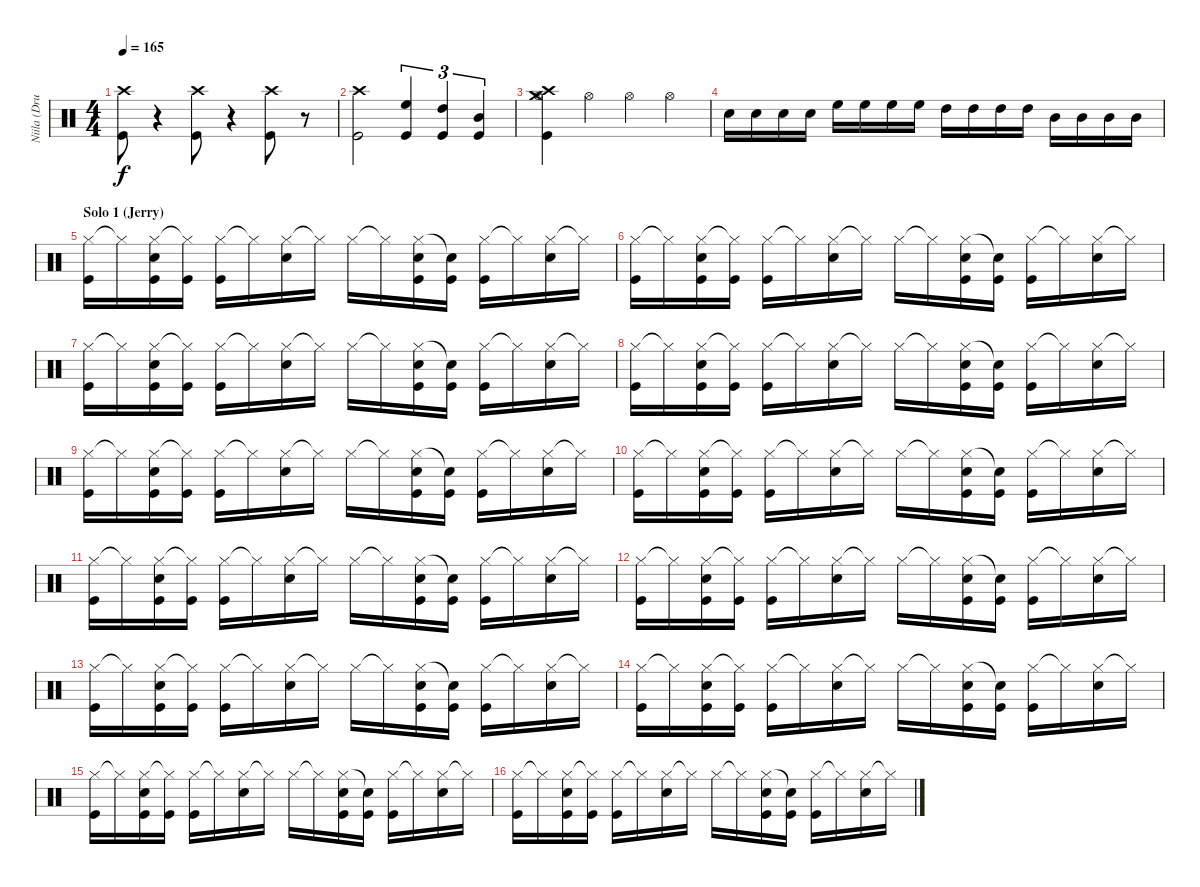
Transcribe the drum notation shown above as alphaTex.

\track ("Niila (Drums)" "Niila (Dru") {instrument percussion}
\staff {score}
\articulation defaults
\ts (4 4)
\tempo 165
\clef neutral
\ks c
("Crash high (hit)" "Kick (hit)").8{dy f} r.4 ("Crash high (hit)" "Kick (hit)").8 r.4 ("Crash high (hit)" "Kick (hit)").8 r.8 |
("Crash high (hit)" "Kick (hit)").2 ("High Floor Tom (hit)" "Kick (hit)").4{tu (3 2)} ("High Tom (hit)" "Kick (hit)").4{tu (3 2)} ("Mid Tom (hit)" "Kick (hit)").4{tu (3 2)} |
("Crash medium (hit)" "Crash high (hit)" "Hi-Hat (open)" "Kick (hit)").4 "Hi-Hat (open)".4 "Hi-Hat (open)".4 "Hi-Hat (open)".4 |
"Snare (hit) 2".16 "Snare (hit) 2".16 "Snare (hit) 2".16 "Snare (hit) 2".16 "High Floor Tom (hit)".16 "High Floor Tom (hit)".16 "High Floor Tom (hit)".16 "High Floor Tom (hit)".16 "High Tom (hit)".16 "High Tom (hit)".16 "High Tom (hit)".16 "High Tom (hit)".16 "Mid Tom (hit)".16 "Mid Tom (hit)".16 "Mid Tom (hit)".16 "Mid Tom (hit)".16 |
\section ("" "Solo 1 (Jerry)")
("Hi-Hat (closed)" "Kick (hit)").16 "Hi-Hat (closed)"{t}.16 ("Hi-Hat (closed)" "Snare (hit) 2" "Kick (hit)").16 ("Hi-Hat (closed)"{t} "Kick (hit)").16 ("Hi-Hat (closed)" "Kick (hit)").16 "Hi-Hat (closed)"{t}.16 ("Hi-Hat (closed)" "Snare (hit) 2").16 "Hi-Hat (closed)"{t}.16 "Hi-Hat (closed)".16 "Hi-Hat (closed)"{t}.16 ("Hi-Hat (closed)" "Snare (hit) 2" "Kick (hit)").16 ("Snare (hit)"{t} "Kick (hit)").16 ("Hi-Hat (closed)" "Kick (hit)").16 "Hi-Hat (closed)"{t}.16 ("Hi-Hat (closed)" "Snare (hit) 2").16 "Hi-Hat (closed)"{t}.16 |
("Hi-Hat (closed)" "Kick (hit)").16 "Hi-Hat (closed)"{t}.16 ("Hi-Hat (closed)" "Snare (hit) 2" "Kick (hit)").16 ("Hi-Hat (closed)"{t} "Kick (hit)").16 ("Hi-Hat (closed)" "Kick (hit)").16 "Hi-Hat (closed)"{t}.16 ("Hi-Hat (closed)" "Snare (hit) 2").16 "Hi-Hat (closed)"{t}.16 "Hi-Hat (closed)".16 "Hi-Hat (closed)"{t}.16 ("Hi-Hat (closed)" "Snare (hit) 2" "Kick (hit)").16 ("Snare (hit)"{t} "Kick (hit)").16 ("Hi-Hat (closed)" "Kick (hit)").16 "Hi-Hat (closed)"{t}.16 ("Hi-Hat (closed)" "Snare (hit) 2").16 "Hi-Hat (closed)"{t}.16 |
("Hi-Hat (closed)" "Kick (hit)").16 "Hi-Hat (closed)"{t}.16 ("Hi-Hat (closed)" "Snare (hit) 2" "Kick (hit)").16 ("Hi-Hat (closed)"{t} "Kick (hit)").16 ("Hi-Hat (closed)" "Kick (hit)").16 "Hi-Hat (closed)"{t}.16 ("Hi-Hat (closed)" "Snare (hit) 2").16 "Hi-Hat (closed)"{t}.16 "Hi-Hat (closed)".16 "Hi-Hat (closed)"{t}.16 ("Hi-Hat (closed)" "Snare (hit) 2" "Kick (hit)").16 ("Snare (hit)"{t} "Kick (hit)").16 ("Hi-Hat (closed)" "Kick (hit)").16 "Hi-Hat (closed)"{t}.16 ("Hi-Hat (closed)" "Snare (hit) 2").16 "Hi-Hat (closed)"{t}.16 |
("Hi-Hat (closed)" "Kick (hit)").16 "Hi-Hat (closed)"{t}.16 ("Hi-Hat (closed)" "Snare (hit) 2" "Kick (hit)").16 ("Hi-Hat (closed)"{t} "Kick (hit)").16 ("Hi-Hat (closed)" "Kick (hit)").16 "Hi-Hat (closed)"{t}.16 ("Hi-Hat (closed)" "Snare (hit) 2").16 "Hi-Hat (closed)"{t}.16 "Hi-Hat (closed)".16 "Hi-Hat (closed)"{t}.16 ("Hi-Hat (closed)" "Snare (hit) 2" "Kick (hit)").16 ("Snare (hit)"{t} "Kick (hit)").16 ("Hi-Hat (closed)" "Kick (hit)").16 "Hi-Hat (closed)"{t}.16 ("Hi-Hat (closed)" "Snare (hit) 2").16 "Hi-Hat (closed)"{t}.16 |
("Hi-Hat (closed)" "Kick (hit)").16 "Hi-Hat (closed)"{t}.16 ("Hi-Hat (closed)" "Snare (hit) 2" "Kick (hit)").16 ("Hi-Hat (closed)"{t} "Kick (hit)").16 ("Hi-Hat (closed)" "Kick (hit)").16 "Hi-Hat (closed)"{t}.16 ("Hi-Hat (closed)" "Snare (hit) 2").16 "Hi-Hat (closed)"{t}.16 "Hi-Hat (closed)".16 "Hi-Hat (closed)"{t}.16 ("Hi-Hat (closed)" "Snare (hit) 2" "Kick (hit)").16 ("Snare (hit)"{t} "Kick (hit)").16 ("Hi-Hat (closed)" "Kick (hit)").16 "Hi-Hat (closed)"{t}.16 ("Hi-Hat (closed)" "Snare (hit) 2").16 "Hi-Hat (closed)"{t}.16 |
("Hi-Hat (closed)" "Kick (hit)").16 "Hi-Hat (closed)"{t}.16 ("Hi-Hat (closed)" "Snare (hit) 2" "Kick (hit)").16 ("Hi-Hat (closed)"{t} "Kick (hit)").16 ("Hi-Hat (closed)" "Kick (hit)").16 "Hi-Hat (closed)"{t}.16 ("Hi-Hat (closed)" "Snare (hit) 2").16 "Hi-Hat (closed)"{t}.16 "Hi-Hat (closed)".16 "Hi-Hat (closed)"{t}.16 ("Hi-Hat (closed)" "Snare (hit) 2" "Kick (hit)").16 ("Snare (hit)"{t} "Kick (hit)").16 ("Hi-Hat (closed)" "Kick (hit)").16 "Hi-Hat (closed)"{t}.16 ("Hi-Hat (closed)" "Snare (hit) 2").16 "Hi-Hat (closed)"{t}.16 |
("Hi-Hat (closed)" "Kick (hit)").16 "Hi-Hat (closed)"{t}.16 ("Hi-Hat (closed)" "Snare (hit) 2" "Kick (hit)").16 ("Hi-Hat (closed)"{t} "Kick (hit)").16 ("Hi-Hat (closed)" "Kick (hit)").16 "Hi-Hat (closed)"{t}.16 ("Hi-Hat (closed)" "Snare (hit) 2").16 "Hi-Hat (closed)"{t}.16 "Hi-Hat (closed)".16 "Hi-Hat (closed)"{t}.16 ("Hi-Hat (closed)" "Snare (hit) 2" "Kick (hit)").16 ("Snare (hit)"{t} "Kick (hit)").16 ("Hi-Hat (closed)" "Kick (hit)").16 "Hi-Hat (closed)"{t}.16 ("Hi-Hat (closed)" "Snare (hit) 2").16 "Hi-Hat (closed)"{t}.16 |
("Hi-Hat (closed)" "Kick (hit)").16 "Hi-Hat (closed)"{t}.16 ("Hi-Hat (closed)" "Snare (hit) 2" "Kick (hit)").16 ("Hi-Hat (closed)"{t} "Kick (hit)").16 ("Hi-Hat (closed)" "Kick (hit)").16 "Hi-Hat (closed)"{t}.16 ("Hi-Hat (closed)" "Snare (hit) 2").16 "Hi-Hat (closed)"{t}.16 "Hi-Hat (closed)".16 "Hi-Hat (closed)"{t}.16 ("Hi-Hat (closed)" "Snare (hit) 2" "Kick (hit)").16 ("Snare (hit)"{t} "Kick (hit)").16 ("Hi-Hat (closed)" "Kick (hit)").16 "Hi-Hat (closed)"{t}.16 ("Hi-Hat (closed)" "Snare (hit) 2").16 "Hi-Hat (closed)"{t}.16 |
("Hi-Hat (closed)" "Kick (hit)").16 "Hi-Hat (closed)"{t}.16 ("Hi-Hat (closed)" "Snare (hit) 2" "Kick (hit)").16 ("Hi-Hat (closed)"{t} "Kick (hit)").16 ("Hi-Hat (closed)" "Kick (hit)").16 "Hi-Hat (closed)"{t}.16 ("Hi-Hat (closed)" "Snare (hit) 2").16 "Hi-Hat (closed)"{t}.16 "Hi-Hat (closed)".16 "Hi-Hat (closed)"{t}.16 ("Hi-Hat (closed)" "Snare (hit) 2" "Kick (hit)").16 ("Snare (hit)"{t} "Kick (hit)").16 ("Hi-Hat (closed)" "Kick (hit)").16 "Hi-Hat (closed)"{t}.16 ("Hi-Hat (closed)" "Snare (hit) 2").16 "Hi-Hat (closed)"{t}.16 |
("Hi-Hat (closed)" "Kick (hit)").16 "Hi-Hat (closed)"{t}.16 ("Hi-Hat (closed)" "Snare (hit) 2" "Kick (hit)").16 ("Hi-Hat (closed)"{t} "Kick (hit)").16 ("Hi-Hat (closed)" "Kick (hit)").16 "Hi-Hat (closed)"{t}.16 ("Hi-Hat (closed)" "Snare (hit) 2").16 "Hi-Hat (closed)"{t}.16 "Hi-Hat (closed)".16 "Hi-Hat (closed)"{t}.16 ("Hi-Hat (closed)" "Snare (hit) 2" "Kick (hit)").16 ("Snare (hit)"{t} "Kick (hit)").16 ("Hi-Hat (closed)" "Kick (hit)").16 "Hi-Hat (closed)"{t}.16 ("Hi-Hat (closed)" "Snare (hit) 2").16 "Hi-Hat (closed)"{t}.16 |
("Hi-Hat (closed)" "Kick (hit)").16 "Hi-Hat (closed)"{t}.16 ("Hi-Hat (closed)" "Snare (hit) 2" "Kick (hit)").16 ("Hi-Hat (closed)"{t} "Kick (hit)").16 ("Hi-Hat (closed)" "Kick (hit)").16 "Hi-Hat (closed)"{t}.16 ("Hi-Hat (closed)" "Snare (hit) 2").16 "Hi-Hat (closed)"{t}.16 "Hi-Hat (closed)".16 "Hi-Hat (closed)"{t}.16 ("Hi-Hat (closed)" "Snare (hit) 2" "Kick (hit)").16 ("Snare (hit)"{t} "Kick (hit)").16 ("Hi-Hat (closed)" "Kick (hit)").16 "Hi-Hat (closed)"{t}.16 ("Hi-Hat (closed)" "Snare (hit) 2").16 "Hi-Hat (closed)"{t}.16 |
("Hi-Hat (closed)" "Kick (hit)").16 "Hi-Hat (closed)"{t}.16 ("Hi-Hat (closed)" "Snare (hit) 2" "Kick (hit)").16 ("Hi-Hat (closed)"{t} "Kick (hit)").16 ("Hi-Hat (closed)" "Kick (hit)").16 "Hi-Hat (closed)"{t}.16 ("Hi-Hat (closed)" "Snare (hit) 2").16 "Hi-Hat (closed)"{t}.16 "Hi-Hat (closed)".16 "Hi-Hat (closed)"{t}.16 ("Hi-Hat (closed)" "Snare (hit) 2" "Kick (hit)").16 ("Snare (hit)"{t} "Kick (hit)").16 ("Hi-Hat (closed)" "Kick (hit)").16 "Hi-Hat (closed)"{t}.16 ("Hi-Hat (closed)" "Snare (hit) 2").16 "Hi-Hat (closed)"{t}.16
